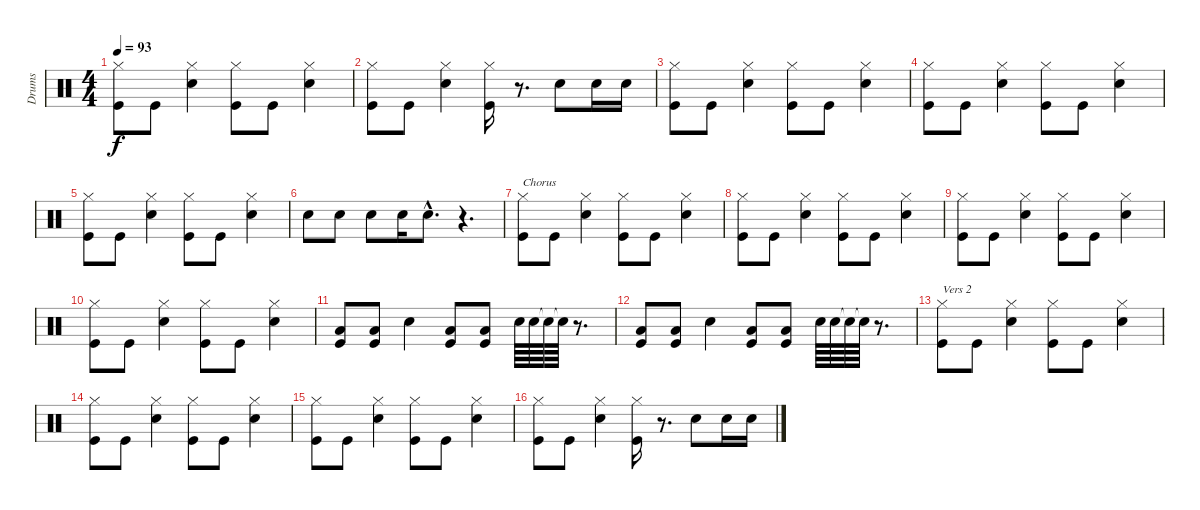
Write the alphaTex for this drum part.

\track ("Drums" "Drums") {instrument percussion}
\staff {score}
\articulation defaults
\ts (4 4)
\tempo 93
\clef neutral
\ks c
("Hi-Hat (closed)" "Kick (hit)").8{dy f} "Kick (hit)".8 ("Hi-Hat (closed)" "Snare (hit) 2").4 ("Hi-Hat (closed)" "Kick (hit)").8 "Kick (hit)".8 ("Hi-Hat (closed)" "Snare (hit) 2").4 |
("Hi-Hat (closed)" "Kick (hit)").8 "Kick (hit)".8 ("Hi-Hat (closed)" "Snare (hit) 2").4 ("Hi-Hat (closed)" "Kick (hit)").16 r.8{d} "Snare (hit) 2".8 "Snare (hit) 2".16 "Snare (hit) 2".16 |
("Hi-Hat (closed)" "Kick (hit)").8 "Kick (hit)".8 ("Hi-Hat (closed)" "Snare (hit) 2").4 ("Hi-Hat (closed)" "Kick (hit)").8 "Kick (hit)".8 ("Hi-Hat (closed)" "Snare (hit) 2").4 |
("Hi-Hat (closed)" "Kick (hit)").8 "Kick (hit)".8 ("Hi-Hat (closed)" "Snare (hit) 2").4 ("Hi-Hat (closed)" "Kick (hit)").8 "Kick (hit)".8 ("Hi-Hat (closed)" "Snare (hit) 2").4 |
("Hi-Hat (closed)" "Kick (hit)").8 "Kick (hit)".8 ("Hi-Hat (closed)" "Snare (hit) 2").4 ("Hi-Hat (closed)" "Kick (hit)").8 "Kick (hit)".8 ("Hi-Hat (closed)" "Snare (hit) 2").4 |
"Snare (hit) 2".8 "Snare (hit) 2".8 "Snare (hit) 2".8 "Snare (hit) 2".16 "Snare (hit) 2"{hac}.8{d} r.4{d} |
("Hi-Hat (closed)" "Kick (hit)").8{txt "Chorus"} "Kick (hit)".8 ("Hi-Hat (closed)" "Snare (hit) 2").4 ("Hi-Hat (closed)" "Kick (hit)").8 "Kick (hit)".8 ("Hi-Hat (closed)" "Snare (hit) 2").4 |
("Hi-Hat (closed)" "Kick (hit)").8 "Kick (hit)".8 ("Hi-Hat (closed)" "Snare (hit) 2").4 ("Hi-Hat (closed)" "Kick (hit)").8 "Kick (hit)".8 ("Hi-Hat (closed)" "Snare (hit) 2").4 |
("Hi-Hat (closed)" "Kick (hit)").8 "Kick (hit)".8 ("Hi-Hat (closed)" "Snare (hit) 2").4 ("Hi-Hat (closed)" "Kick (hit)").8 "Kick (hit)".8 ("Hi-Hat (closed)" "Snare (hit) 2").4 |
("Hi-Hat (closed)" "Kick (hit)").8 "Kick (hit)".8 ("Hi-Hat (closed)" "Snare (hit) 2").4 ("Hi-Hat (closed)" "Kick (hit)").8 "Kick (hit)".8 ("Hi-Hat (closed)" "Snare (hit) 2").4 |
("Kick (hit)" "Low Floor Tom (hit)").8 ("Kick (hit)" "Low Floor Tom (hit)").8 "Snare (hit) 2".4 ("Kick (hit)" "Low Floor Tom (hit)").8 ("Kick (hit)" "Low Floor Tom (hit)").8 "Snare (hit) 2".64 "Snare (hit) 2".64 "Snare (hit) 2"{t}.64 "Snare (hit) 2"{t}.64 r.8{d} |
("Kick (hit)" "Low Floor Tom (hit)").8 ("Kick (hit)" "Low Floor Tom (hit)").8 "Snare (hit) 2".4 ("Kick (hit)" "Low Floor Tom (hit)").8 ("Kick (hit)" "Low Floor Tom (hit)").8 "Snare (hit) 2".64 "Snare (hit) 2".64 "Snare (hit) 2"{t}.64 "Snare (hit) 2"{t}.64 r.8{d} |
("Hi-Hat (closed)" "Kick (hit)").8{txt "Vers 2"} "Kick (hit)".8 ("Hi-Hat (closed)" "Snare (hit) 2").4 ("Hi-Hat (closed)" "Kick (hit)").8 "Kick (hit)".8 ("Hi-Hat (closed)" "Snare (hit) 2").4 |
("Hi-Hat (closed)" "Kick (hit)").8 "Kick (hit)".8 ("Hi-Hat (closed)" "Snare (hit) 2").4 ("Hi-Hat (closed)" "Kick (hit)").8 "Kick (hit)".8 ("Hi-Hat (closed)" "Snare (hit) 2").4 |
("Hi-Hat (closed)" "Kick (hit)").8 "Kick (hit)".8 ("Hi-Hat (closed)" "Snare (hit) 2").4 ("Hi-Hat (closed)" "Kick (hit)").8 "Kick (hit)".8 ("Hi-Hat (closed)" "Snare (hit) 2").4 |
("Hi-Hat (closed)" "Kick (hit)").8 "Kick (hit)".8 ("Hi-Hat (closed)" "Snare (hit) 2").4 ("Hi-Hat (closed)" "Kick (hit)").16 r.8{d} "Snare (hit) 2".8 "Snare (hit) 2".16 "Snare (hit) 2".16
